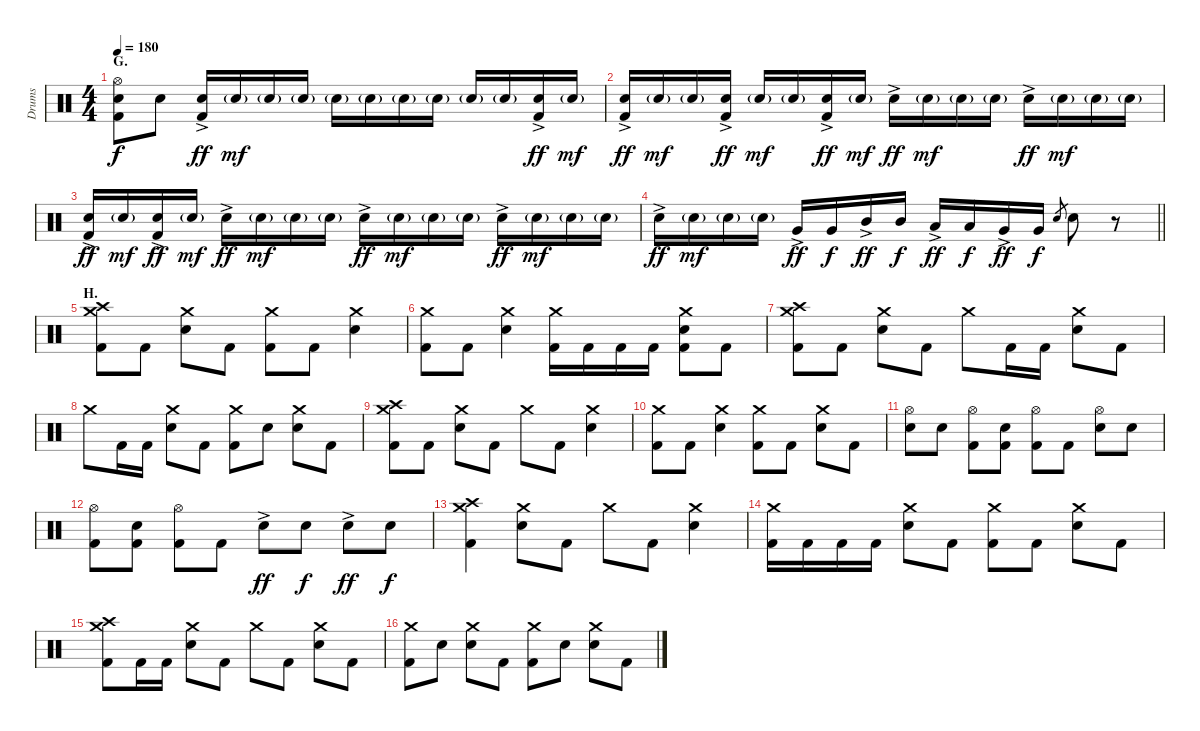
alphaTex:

\track ("Drums" "Drums") {instrument percussion}
\staff {score}
\articulation defaults
\ts (4 4)
\section ("" "G.")
\tempo 180
\clef neutral
\ks c
("Hi-Hat (open)" "Electric Snare (hit)" "Kick (hit) 2").8{dy f} "Electric Snare (hit)".8 ("Electric Snare (hit)"{ac} "Kick (hit) 2").16{dy ff} "Electric Snare (hit)"{g}.16{dy mf} "Electric Snare (hit)"{g}.16 "Electric Snare (hit)"{g}.16 "Electric Snare (hit)"{g}.16 "Electric Snare (hit)"{g}.16 "Electric Snare (hit)"{g}.16 "Electric Snare (hit)"{g}.16 "Electric Snare (hit)"{g}.16 "Electric Snare (hit)"{g}.16 ("Electric Snare (hit)"{ac} "Kick (hit) 2").16{dy ff} "Electric Snare (hit)"{g}.16{dy mf} |
("Electric Snare (hit)"{ac} "Kick (hit) 2").16{dy ff} "Electric Snare (hit)"{g}.16{dy mf} "Electric Snare (hit)"{g}.16 ("Electric Snare (hit)"{ac} "Kick (hit) 2").16{dy ff} "Electric Snare (hit)"{g}.16{dy mf} "Electric Snare (hit)"{g}.16 ("Electric Snare (hit)"{ac} "Kick (hit) 2").16{dy ff} "Electric Snare (hit)"{g}.16{dy mf} "Electric Snare (hit)"{ac}.16{dy ff} "Electric Snare (hit)"{g}.16{dy mf} "Electric Snare (hit)"{g}.16 "Electric Snare (hit)"{g}.16 "Electric Snare (hit)"{ac}.16{dy ff} "Electric Snare (hit)"{g}.16{dy mf} "Electric Snare (hit)"{g}.16 "Electric Snare (hit)"{g}.16 |
("Electric Snare (hit)"{ac} "Kick (hit) 2").16{dy ff} "Electric Snare (hit)"{g}.16{dy mf} ("Electric Snare (hit)"{ac} "Kick (hit) 2").16{dy ff} "Electric Snare (hit)"{g}.16{dy mf} "Electric Snare (hit)"{ac}.16{dy ff} "Electric Snare (hit)"{g}.16{dy mf} "Electric Snare (hit)"{g}.16 "Electric Snare (hit)"{g}.16 "Electric Snare (hit)"{ac}.16{dy ff} "Electric Snare (hit)"{g}.16{dy mf} "Electric Snare (hit)"{g}.16 "Electric Snare (hit)"{g}.16 "Electric Snare (hit)"{ac}.16{dy ff} "Electric Snare (hit)"{g}.16{dy mf} "Electric Snare (hit)"{g}.16 "Electric Snare (hit)"{g}.16 |
\barLineRight lightlight "Electric Snare (hit)"{ac}.16{dy ff} "Electric Snare (hit)"{g}.16{dy mf} "Electric Snare (hit)"{g}.16 "Electric Snare (hit)"{g}.16 "Very Low Tom (hit)"{ac}.16{dy ff} "Very Low Tom (hit)".16{dy f} "Mid Tom (hit)"{ac}.16{dy ff} "Mid Tom (hit)".16{dy f} "Low Tom (hit)"{ac}.16{dy ff} "Low Tom (hit)".16{dy f} "Very Low Tom (hit)"{ac}.16{dy ff} "Very Low Tom (hit)".16{dy f} "Electric Snare (hit)".8{gr} "Electric Snare (hit)".8
r.8 |
\section ("" "H.")
("Crash medium (hit)" "Crash high (hit)" "Kick (hit) 2").8 "Kick (hit) 2".8 ("Crash medium (hit)" "Electric Snare (hit)").8 "Kick (hit) 2".8 ("Crash medium (hit)" "Kick (hit) 2").8 "Kick (hit) 2".8 ("Crash medium (hit)" "Electric Snare (hit)").4 |
("Crash medium (hit)" "Kick (hit) 2").8 "Kick (hit) 2".8 ("Crash medium (hit)" "Electric Snare (hit)").4 ("Crash medium (hit)" "Kick (hit) 2").16 "Kick (hit) 2".16 "Kick (hit) 2".16 "Kick (hit) 2".16 ("Crash medium (hit)" "Electric Snare (hit)" "Kick (hit) 2").8 "Kick (hit) 2".8 |
("Crash medium (hit)" "Crash high (hit)" "Kick (hit) 2").8 "Kick (hit) 2".8 ("Crash medium (hit)" "Electric Snare (hit)").8 "Kick (hit) 2".8 "Crash medium (hit)".8 "Kick (hit) 2".16 "Kick (hit) 2".16 ("Crash medium (hit)" "Electric Snare (hit)").8 "Kick (hit) 2".8 |
"Crash medium (hit)".8 "Kick (hit) 2".16 "Kick (hit) 2".16 ("Crash medium (hit)" "Electric Snare (hit)").8 "Kick (hit) 2".8 ("Crash medium (hit)" "Kick (hit) 2").8 "Electric Snare (hit)".8 ("Crash medium (hit)" "Electric Snare (hit)").8 "Kick (hit) 2".8 |
("Crash medium (hit)" "Crash high (hit)" "Kick (hit) 2").8 "Kick (hit) 2".8 ("Crash medium (hit)" "Electric Snare (hit)").8 "Kick (hit) 2".8 "Crash medium (hit)".8 "Kick (hit) 2".8 ("Crash medium (hit)" "Electric Snare (hit)").4 |
("Crash medium (hit)" "Kick (hit) 2").8 "Kick (hit) 2".8 ("Crash medium (hit)" "Electric Snare (hit)").4 ("Crash medium (hit)" "Kick (hit) 2").8 "Kick (hit) 2".8 ("Crash medium (hit)" "Electric Snare (hit)").8 "Kick (hit) 2".8 |
("Hi-Hat (open)" "Electric Snare (hit)").8 "Electric Snare (hit)".8 ("Hi-Hat (open)" "Kick (hit) 2").8 ("Electric Snare (hit)" "Kick (hit) 2").8 ("Hi-Hat (open)" "Kick (hit) 2").8 "Kick (hit) 2".8 ("Hi-Hat (open)" "Electric Snare (hit)").8 "Electric Snare (hit)".8 |
("Hi-Hat (open)" "Kick (hit) 2").8 ("Electric Snare (hit)" "Kick (hit) 2").8 ("Hi-Hat (open)" "Kick (hit) 2").8 "Kick (hit) 2".8 "Electric Snare (hit)"{ac}.8{dy ff} "Electric Snare (hit)".8{dy f} "Electric Snare (hit)"{ac}.8{dy ff} "Electric Snare (hit)".8{dy f} |
("Crash medium (hit)" "Crash high (hit)" "Kick (hit) 2").4 ("Crash medium (hit)" "Electric Snare (hit)").8 "Kick (hit) 2".8 "Crash medium (hit)".8 "Kick (hit) 2".8 ("Crash medium (hit)" "Electric Snare (hit)").4 |
("Crash medium (hit)" "Kick (hit) 2").16 "Kick (hit) 2".16 "Kick (hit) 2".16 "Kick (hit) 2".16 ("Crash medium (hit)" "Electric Snare (hit)").8 "Kick (hit) 2".8 ("Crash medium (hit)" "Kick (hit) 2").8 "Kick (hit) 2".8 ("Crash medium (hit)" "Electric Snare (hit)").8 "Kick (hit) 2".8 |
("Crash medium (hit)" "Crash high (hit)" "Kick (hit) 2").8 "Kick (hit) 2".16 "Kick (hit) 2".16 ("Crash medium (hit)" "Electric Snare (hit)").8 "Kick (hit) 2".8 "Crash medium (hit)".8 "Kick (hit) 2".8 ("Crash medium (hit)" "Electric Snare (hit)").8 "Kick (hit) 2".8 |
("Crash medium (hit)" "Kick (hit) 2").8 "Electric Snare (hit)".8 ("Crash medium (hit)" "Electric Snare (hit)").8 "Kick (hit) 2".8 ("Crash medium (hit)" "Kick (hit) 2").8 "Electric Snare (hit)".8 ("Crash medium (hit)" "Electric Snare (hit)").8 "Kick (hit) 2".8
